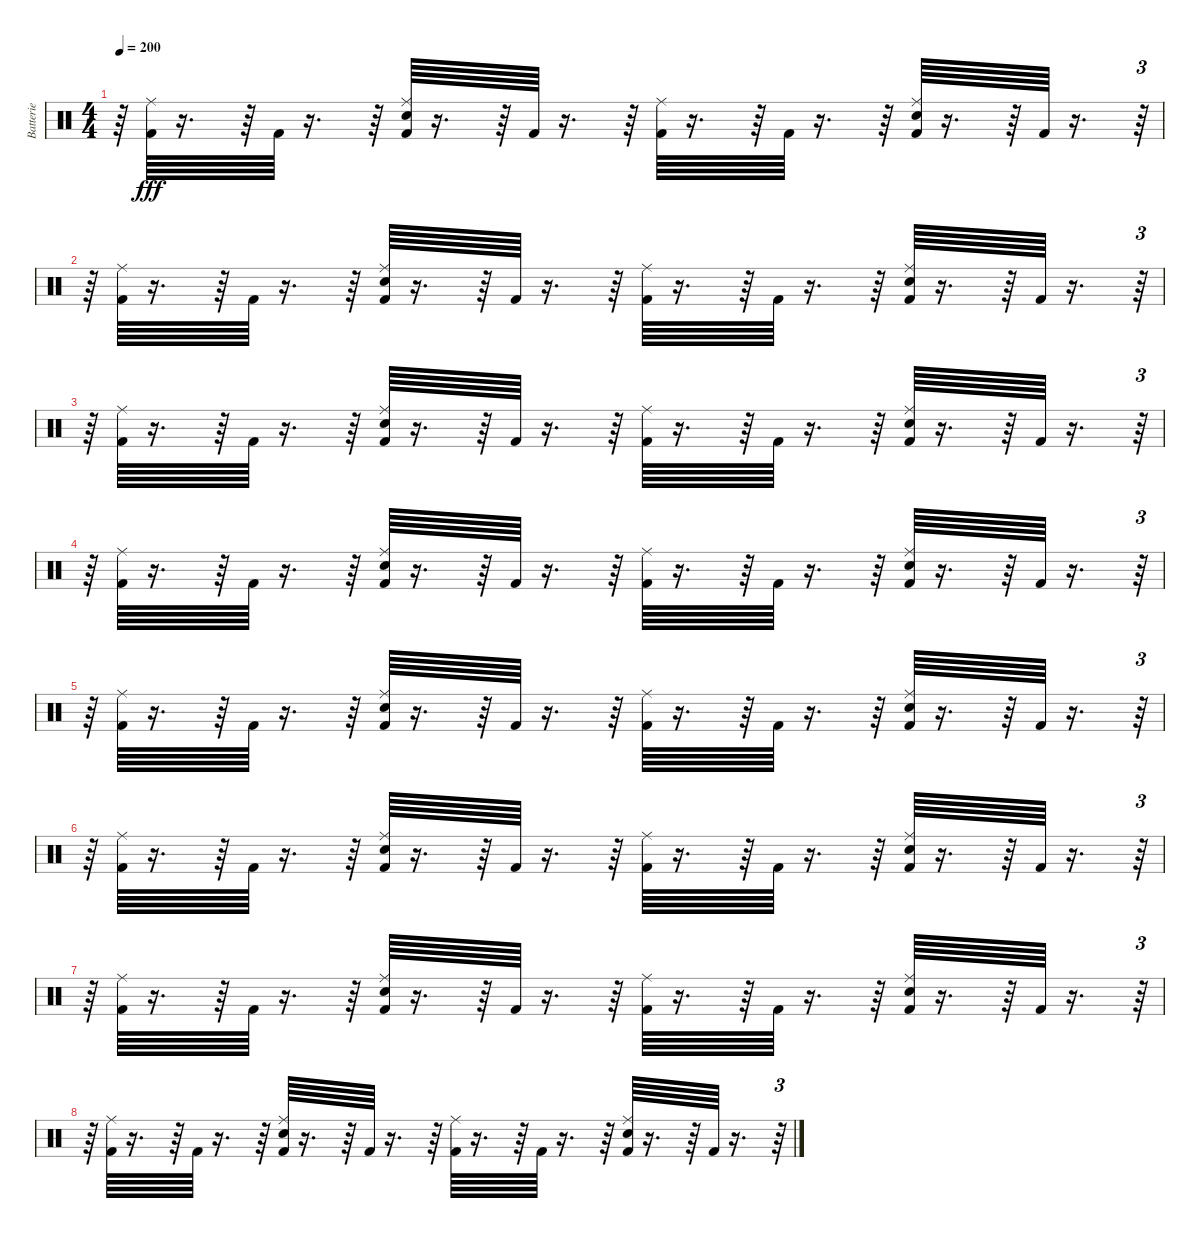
\track ("Batterie" "Batterie") {instrument percussion}
\staff {score}
\articulation defaults
\ts (4 4)
\tempo 200
\clef neutral
\ks c
r.64{dy fff} ("Kick (hit) 2" "Ride (middle)").64 r.16{d} r.64 "Kick (hit) 2".64 r.16{d} r.64 ("Kick (hit) 2" "Snare (hit) 2" "Ride (middle)").64 r.16{d} r.64 "Kick (hit) 2".64 r.16{d} r.64 ("Kick (hit) 2" "Ride (middle)").64 r.16{d} r.64 "Kick (hit) 2".64 r.16{d} r.64 ("Kick (hit) 2" "Snare (hit) 2" "Ride (middle)").64 r.16{d} r.64 "Kick (hit) 2".64 r.16{d} r.64{tu (3 2)} |
r.64 ("Kick (hit) 2" "Ride (middle)").64 r.16{d} r.64 "Kick (hit) 2".64 r.16{d} r.64 ("Kick (hit) 2" "Snare (hit) 2" "Ride (middle)").64 r.16{d} r.64 "Kick (hit) 2".64 r.16{d} r.64 ("Kick (hit) 2" "Ride (middle)").64 r.16{d} r.64 "Kick (hit) 2".64 r.16{d} r.64 ("Kick (hit) 2" "Snare (hit) 2" "Ride (middle)").64 r.16{d} r.64 "Kick (hit) 2".64 r.16{d} r.64{tu (3 2)} |
r.64 ("Kick (hit) 2" "Ride (middle)").64 r.16{d} r.64 "Kick (hit) 2".64 r.16{d} r.64 ("Kick (hit) 2" "Snare (hit) 2" "Ride (middle)").64 r.16{d} r.64 "Kick (hit) 2".64 r.16{d} r.64 ("Kick (hit) 2" "Ride (middle)").64 r.16{d} r.64 "Kick (hit) 2".64 r.16{d} r.64 ("Kick (hit) 2" "Snare (hit) 2" "Ride (middle)").64 r.16{d} r.64 "Kick (hit) 2".64 r.16{d} r.64{tu (3 2)} |
r.64 ("Kick (hit) 2" "Ride (middle)").64 r.16{d} r.64 "Kick (hit) 2".64 r.16{d} r.64 ("Kick (hit) 2" "Snare (hit) 2" "Ride (middle)").64 r.16{d} r.64 "Kick (hit) 2".64 r.16{d} r.64 ("Kick (hit) 2" "Ride (middle)").64 r.16{d} r.64 "Kick (hit) 2".64 r.16{d} r.64 ("Kick (hit) 2" "Snare (hit) 2" "Ride (middle)").64 r.16{d} r.64 "Kick (hit) 2".64 r.16{d} r.64{tu (3 2)} |
r.64 ("Kick (hit) 2" "Ride (middle)").64 r.16{d} r.64 "Kick (hit) 2".64 r.16{d} r.64 ("Kick (hit) 2" "Snare (hit) 2" "Ride (middle)").64 r.16{d} r.64 "Kick (hit) 2".64 r.16{d} r.64 ("Kick (hit) 2" "Ride (middle)").64 r.16{d} r.64 "Kick (hit) 2".64 r.16{d} r.64 ("Kick (hit) 2" "Snare (hit) 2" "Ride (middle)").64 r.16{d} r.64 "Kick (hit) 2".64 r.16{d} r.64{tu (3 2)} |
r.64 ("Kick (hit) 2" "Ride (middle)").64 r.16{d} r.64 "Kick (hit) 2".64 r.16{d} r.64 ("Kick (hit) 2" "Snare (hit) 2" "Ride (middle)").64 r.16{d} r.64 "Kick (hit) 2".64 r.16{d} r.64 ("Kick (hit) 2" "Ride (middle)").64 r.16{d} r.64 "Kick (hit) 2".64 r.16{d} r.64 ("Kick (hit) 2" "Snare (hit) 2" "Ride (middle)").64 r.16{d} r.64 "Kick (hit) 2".64 r.16{d} r.64{tu (3 2)} |
r.64 ("Kick (hit) 2" "Ride (middle)").64 r.16{d} r.64 "Kick (hit) 2".64 r.16{d} r.64 ("Kick (hit) 2" "Snare (hit) 2" "Ride (middle)").64 r.16{d} r.64 "Kick (hit) 2".64 r.16{d} r.64 ("Kick (hit) 2" "Ride (middle)").64 r.16{d} r.64 "Kick (hit) 2".64 r.16{d} r.64 ("Kick (hit) 2" "Snare (hit) 2" "Ride (middle)").64 r.16{d} r.64 "Kick (hit) 2".64 r.16{d} r.64{tu (3 2)} |
r.64 ("Kick (hit) 2" "Ride (middle)").64 r.16{d} r.64 "Kick (hit) 2".64 r.16{d} r.64 ("Kick (hit) 2" "Snare (hit) 2" "Ride (middle)").64 r.16{d} r.64 "Kick (hit) 2".64 r.16{d} r.64 ("Kick (hit) 2" "Ride (middle)").64 r.16{d} r.64 "Kick (hit) 2".64 r.16{d} r.64 ("Kick (hit) 2" "Snare (hit) 2" "Ride (middle)").64 r.16{d} r.64 "Kick (hit) 2".64 r.16{d} r.64{tu (3 2)}
